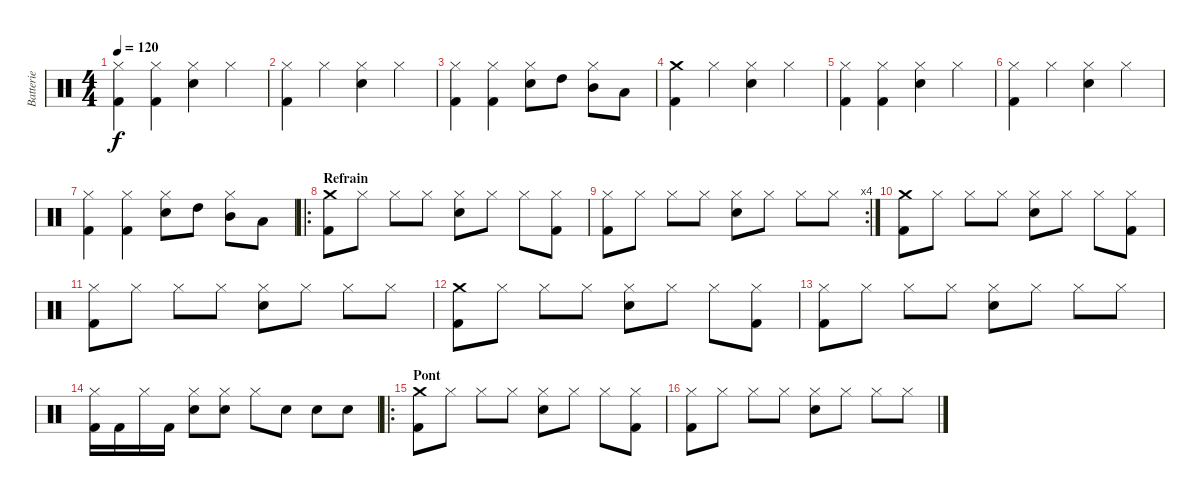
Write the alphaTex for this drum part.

\track ("Batterie" "Batterie") {instrument percussion}
\staff {score}
\articulation defaults
\ts (4 4)
\tempo 120
\clef neutral
\ks c
("Kick (hit) 2" "Hi-Hat (closed)").4{dy f} ("Kick (hit) 2" "Hi-Hat (closed)").4 ("Snare (hit) 2" "Hi-Hat (closed)").4 "Hi-Hat (closed)".4 |
("Kick (hit) 2" "Hi-Hat (closed)").4 "Hi-Hat (closed)".4 ("Snare (hit) 2" "Hi-Hat (closed)").4 "Hi-Hat (closed)".4 |
("Kick (hit) 2" "Hi-Hat (closed)").4 ("Kick (hit) 2" "Hi-Hat (closed)").4 ("Snare (hit) 2" "Hi-Hat (closed)").8 "High Tom (hit)".8 ("Mid Tom (hit)" "Hi-Hat (closed)").8 "Low Tom (hit)".8 |
("Crash medium (hit)" "Kick (hit) 2").4 "Hi-Hat (closed)".4 ("Snare (hit) 2" "Hi-Hat (closed)").4 "Hi-Hat (closed)".4 |
("Kick (hit) 2" "Hi-Hat (closed)").4 ("Kick (hit) 2" "Hi-Hat (closed)").4 ("Snare (hit) 2" "Hi-Hat (closed)").4 "Hi-Hat (closed)".4 |
("Kick (hit) 2" "Hi-Hat (closed)").4 "Hi-Hat (closed)".4 ("Snare (hit) 2" "Hi-Hat (closed)").4 "Hi-Hat (closed)".4 |
("Kick (hit) 2" "Hi-Hat (closed)").4 ("Kick (hit) 2" "Hi-Hat (closed)").4 ("Snare (hit) 2" "Hi-Hat (closed)").8 "High Tom (hit)".8 ("Mid Tom (hit)" "Hi-Hat (closed)").8 "Low Tom (hit)".8 |
\ro
\section ("" "Refrain")
("Kick (hit) 2" "Crash medium (hit)").8 "Hi-Hat (closed)".8 "Hi-Hat (closed)".8 "Hi-Hat (closed)".8 ("Snare (hit) 2" "Hi-Hat (closed)").8 "Hi-Hat (closed)".8 "Hi-Hat (closed)".8 ("Kick (hit) 2" "Hi-Hat (closed)").8 |
\rc 4
("Kick (hit) 2" "Hi-Hat (closed)").8 "Hi-Hat (closed)".8 "Hi-Hat (closed)".8 "Hi-Hat (closed)".8 ("Snare (hit) 2" "Hi-Hat (closed)").8 "Hi-Hat (closed)".8 "Hi-Hat (closed)".8 "Hi-Hat (closed)".8 |
("Kick (hit) 2" "Crash medium (hit)").8 "Hi-Hat (closed)".8 "Hi-Hat (closed)".8 "Hi-Hat (closed)".8 ("Snare (hit) 2" "Hi-Hat (closed)").8 "Hi-Hat (closed)".8 "Hi-Hat (closed)".8 ("Kick (hit) 2" "Hi-Hat (closed)").8 |
("Kick (hit) 2" "Hi-Hat (closed)").8 "Hi-Hat (closed)".8 "Hi-Hat (closed)".8 "Hi-Hat (closed)".8 ("Snare (hit) 2" "Hi-Hat (closed)").8 "Hi-Hat (closed)".8 "Hi-Hat (closed)".8 "Hi-Hat (closed)".8 |
("Kick (hit) 2" "Crash medium (hit)").8 "Hi-Hat (closed)".8 "Hi-Hat (closed)".8 "Hi-Hat (closed)".8 ("Snare (hit) 2" "Hi-Hat (closed)").8 "Hi-Hat (closed)".8 "Hi-Hat (closed)".8 ("Kick (hit) 2" "Hi-Hat (closed)").8 |
("Kick (hit) 2" "Hi-Hat (closed)").8 "Hi-Hat (closed)".8 "Hi-Hat (closed)".8 "Hi-Hat (closed)".8 ("Snare (hit) 2" "Hi-Hat (closed)").8 "Hi-Hat (closed)".8 "Hi-Hat (closed)".8 "Hi-Hat (closed)".8 |
("Kick (hit) 2" "Hi-Hat (closed)").16 "Kick (hit) 2".16 "Hi-Hat (closed)".16 "Kick (hit) 2".16 ("Snare (hit) 2" "Hi-Hat (closed)").8 ("Snare (hit) 2" "Hi-Hat (closed)").8 "Hi-Hat (closed)".8 "Snare (hit) 2".8 "Snare (hit) 2".8 "Snare (hit) 2".8 |
\ro
\section ("" "Pont")
("Kick (hit) 2" "Crash medium (hit)").8 "Hi-Hat (closed)".8 "Hi-Hat (closed)".8 "Hi-Hat (closed)".8 ("Snare (hit) 2" "Hi-Hat (closed)").8 "Hi-Hat (closed)".8 "Hi-Hat (closed)".8 ("Kick (hit) 2" "Hi-Hat (closed)").8 |
("Kick (hit) 2" "Hi-Hat (closed)").8 "Hi-Hat (closed)".8 "Hi-Hat (closed)".8 "Hi-Hat (closed)".8 ("Snare (hit) 2" "Hi-Hat (closed)").8 "Hi-Hat (closed)".8 "Hi-Hat (closed)".8 "Hi-Hat (closed)".8
